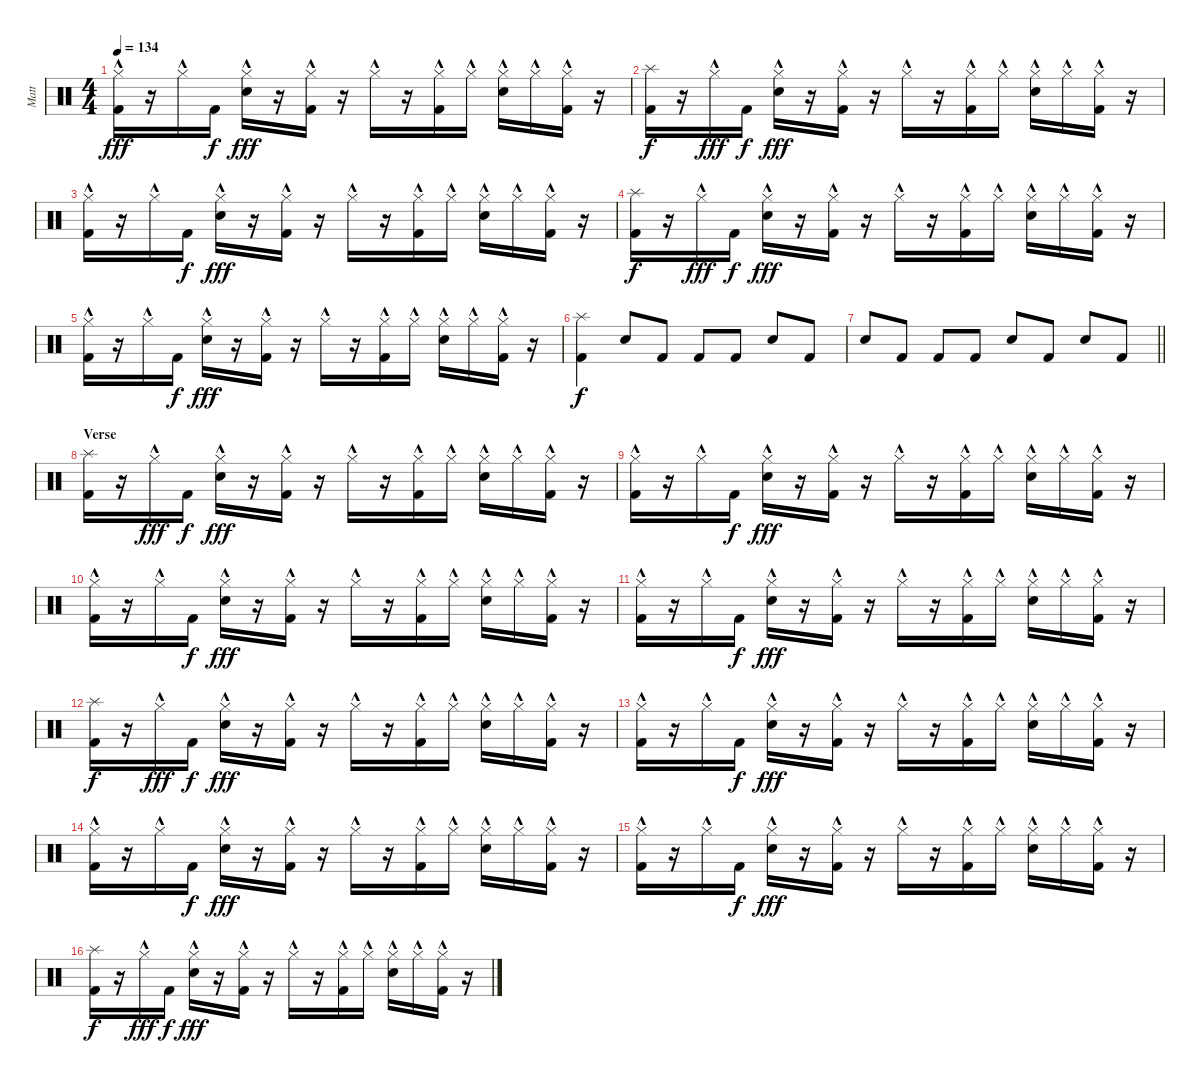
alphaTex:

\track ("Matt" "Matt") {instrument percussion}
\staff {score}
\articulation defaults
\ts (4 4)
\tempo 134
\clef neutral
\ks c
("Hi-Hat (closed)"{hac} "Kick (hit) 2").16{dy fff} r.16 "Hi-Hat (closed)"{hac}.16 "Kick (hit) 2".16{dy f} ("Hi-Hat (closed)"{hac} "Snare (hit) 2").16{dy fff} r.16 ("Hi-Hat (closed)"{hac} "Kick (hit) 2").16 r.16 "Hi-Hat (closed)"{hac}.16 r.16 ("Hi-Hat (closed)"{hac} "Kick (hit) 2").16 "Hi-Hat (closed)"{hac}.16 ("Hi-Hat (closed)"{hac} "Snare (hit) 2").16 "Hi-Hat (closed)"{hac}.16 ("Hi-Hat (closed)"{hac} "Kick (hit) 2").16 r.16 |
("Splash (hit)" "Kick (hit) 2").16{dy f} r.16 "Hi-Hat (closed)"{hac}.16{dy fff} "Kick (hit) 2".16{dy f} ("Hi-Hat (closed)"{hac} "Snare (hit) 2").16{dy fff} r.16 ("Hi-Hat (closed)"{hac} "Kick (hit) 2").16 r.16 "Hi-Hat (closed)"{hac}.16 r.16 ("Hi-Hat (closed)"{hac} "Kick (hit) 2").16 "Hi-Hat (closed)"{hac}.16 ("Hi-Hat (closed)"{hac} "Snare (hit) 2").16 "Hi-Hat (closed)"{hac}.16 ("Hi-Hat (closed)"{hac} "Kick (hit) 2").16 r.16 |
("Hi-Hat (closed)"{hac} "Kick (hit) 2").16 r.16 "Hi-Hat (closed)"{hac}.16 "Kick (hit) 2".16{dy f} ("Hi-Hat (closed)"{hac} "Snare (hit) 2").16{dy fff} r.16 ("Hi-Hat (closed)"{hac} "Kick (hit) 2").16 r.16 "Hi-Hat (closed)"{hac}.16 r.16 ("Hi-Hat (closed)"{hac} "Kick (hit) 2").16 "Hi-Hat (closed)"{hac}.16 ("Hi-Hat (closed)"{hac} "Snare (hit) 2").16 "Hi-Hat (closed)"{hac}.16 ("Hi-Hat (closed)"{hac} "Kick (hit) 2").16 r.16 |
("Splash (hit)" "Kick (hit) 2").16{dy f} r.16 "Hi-Hat (closed)"{hac}.16{dy fff} "Kick (hit) 2".16{dy f} ("Hi-Hat (closed)"{hac} "Snare (hit) 2").16{dy fff} r.16 ("Hi-Hat (closed)"{hac} "Kick (hit) 2").16 r.16 "Hi-Hat (closed)"{hac}.16 r.16 ("Hi-Hat (closed)"{hac} "Kick (hit) 2").16 "Hi-Hat (closed)"{hac}.16 ("Hi-Hat (closed)"{hac} "Snare (hit) 2").16 "Hi-Hat (closed)"{hac}.16 ("Hi-Hat (closed)"{hac} "Kick (hit) 2").16 r.16 |
("Hi-Hat (closed)"{hac} "Kick (hit) 2").16 r.16 "Hi-Hat (closed)"{hac}.16 "Kick (hit) 2".16{dy f} ("Hi-Hat (closed)"{hac} "Snare (hit) 2").16{dy fff} r.16 ("Hi-Hat (closed)"{hac} "Kick (hit) 2").16 r.16 "Hi-Hat (closed)"{hac}.16 r.16 ("Hi-Hat (closed)"{hac} "Kick (hit) 2").16 "Hi-Hat (closed)"{hac}.16 ("Hi-Hat (closed)"{hac} "Snare (hit) 2").16 "Hi-Hat (closed)"{hac}.16 ("Hi-Hat (closed)"{hac} "Kick (hit) 2").16 r.16 |
("Splash (hit)" "Kick (hit) 2").4{dy f} "Snare (hit) 2".8 "Kick (hit) 2".8 "Kick (hit) 2".8 "Kick (hit) 2".8 "Snare (hit) 2".8 "Kick (hit) 2".8 |
\barLineRight lightlight "Snare (hit) 2".8 "Kick (hit) 2".8 "Kick (hit) 2".8 "Kick (hit) 2".8 "Snare (hit) 2".8 "Kick (hit) 2".8 "Snare (hit) 2".8 "Kick (hit) 2".8
|
\section ("" "Verse")
("Splash (hit)" "Kick (hit) 2").16 r.16 "Hi-Hat (closed)"{hac}.16{dy fff} "Kick (hit) 2".16{dy f} ("Hi-Hat (closed)"{hac} "Snare (hit) 2").16{dy fff} r.16 ("Hi-Hat (closed)"{hac} "Kick (hit) 2").16 r.16 "Hi-Hat (closed)"{hac}.16 r.16 ("Hi-Hat (closed)"{hac} "Kick (hit) 2").16 "Hi-Hat (closed)"{hac}.16 ("Hi-Hat (closed)"{hac} "Snare (hit) 2").16 "Hi-Hat (closed)"{hac}.16 ("Hi-Hat (closed)"{hac} "Kick (hit) 2").16 r.16 |
("Hi-Hat (closed)"{hac} "Kick (hit) 2").16 r.16 "Hi-Hat (closed)"{hac}.16 "Kick (hit) 2".16{dy f} ("Hi-Hat (closed)"{hac} "Snare (hit) 2").16{dy fff} r.16 ("Hi-Hat (closed)"{hac} "Kick (hit) 2").16 r.16 "Hi-Hat (closed)"{hac}.16 r.16 ("Hi-Hat (closed)"{hac} "Kick (hit) 2").16 "Hi-Hat (closed)"{hac}.16 ("Hi-Hat (closed)"{hac} "Snare (hit) 2").16 "Hi-Hat (closed)"{hac}.16 ("Hi-Hat (closed)"{hac} "Kick (hit) 2").16 r.16 |
("Hi-Hat (closed)"{hac} "Kick (hit) 2").16 r.16 "Hi-Hat (closed)"{hac}.16 "Kick (hit) 2".16{dy f} ("Hi-Hat (closed)"{hac} "Snare (hit) 2").16{dy fff} r.16 ("Hi-Hat (closed)"{hac} "Kick (hit) 2").16 r.16 "Hi-Hat (closed)"{hac}.16 r.16 ("Hi-Hat (closed)"{hac} "Kick (hit) 2").16 "Hi-Hat (closed)"{hac}.16 ("Hi-Hat (closed)"{hac} "Snare (hit) 2").16 "Hi-Hat (closed)"{hac}.16 ("Hi-Hat (closed)"{hac} "Kick (hit) 2").16 r.16 |
("Hi-Hat (closed)"{hac} "Kick (hit) 2").16 r.16 "Hi-Hat (closed)"{hac}.16 "Kick (hit) 2".16{dy f} ("Hi-Hat (closed)"{hac} "Snare (hit) 2").16{dy fff} r.16 ("Hi-Hat (closed)"{hac} "Kick (hit) 2").16 r.16 "Hi-Hat (closed)"{hac}.16 r.16 ("Hi-Hat (closed)"{hac} "Kick (hit) 2").16 "Hi-Hat (closed)"{hac}.16 ("Hi-Hat (closed)"{hac} "Snare (hit) 2").16 "Hi-Hat (closed)"{hac}.16 ("Hi-Hat (closed)"{hac} "Kick (hit) 2").16 r.16 |
("Splash (hit)" "Kick (hit) 2").16{dy f} r.16 "Hi-Hat (closed)"{hac}.16{dy fff} "Kick (hit) 2".16{dy f} ("Hi-Hat (closed)"{hac} "Snare (hit) 2").16{dy fff} r.16 ("Hi-Hat (closed)"{hac} "Kick (hit) 2").16 r.16 "Hi-Hat (closed)"{hac}.16 r.16 ("Hi-Hat (closed)"{hac} "Kick (hit) 2").16 "Hi-Hat (closed)"{hac}.16 ("Hi-Hat (closed)"{hac} "Snare (hit) 2").16 "Hi-Hat (closed)"{hac}.16 ("Hi-Hat (closed)"{hac} "Kick (hit) 2").16 r.16 |
("Hi-Hat (closed)"{hac} "Kick (hit) 2").16 r.16 "Hi-Hat (closed)"{hac}.16 "Kick (hit) 2".16{dy f} ("Hi-Hat (closed)"{hac} "Snare (hit) 2").16{dy fff} r.16 ("Hi-Hat (closed)"{hac} "Kick (hit) 2").16 r.16 "Hi-Hat (closed)"{hac}.16 r.16 ("Hi-Hat (closed)"{hac} "Kick (hit) 2").16 "Hi-Hat (closed)"{hac}.16 ("Hi-Hat (closed)"{hac} "Snare (hit) 2").16 "Hi-Hat (closed)"{hac}.16 ("Hi-Hat (closed)"{hac} "Kick (hit) 2").16 r.16 |
("Hi-Hat (closed)"{hac} "Kick (hit) 2").16 r.16 "Hi-Hat (closed)"{hac}.16 "Kick (hit) 2".16{dy f} ("Hi-Hat (closed)"{hac} "Snare (hit) 2").16{dy fff} r.16 ("Hi-Hat (closed)"{hac} "Kick (hit) 2").16 r.16 "Hi-Hat (closed)"{hac}.16 r.16 ("Hi-Hat (closed)"{hac} "Kick (hit) 2").16 "Hi-Hat (closed)"{hac}.16 ("Hi-Hat (closed)"{hac} "Snare (hit) 2").16 "Hi-Hat (closed)"{hac}.16 ("Hi-Hat (closed)"{hac} "Kick (hit) 2").16 r.16 |
("Hi-Hat (closed)"{hac} "Kick (hit) 2").16 r.16 "Hi-Hat (closed)"{hac}.16 "Kick (hit) 2".16{dy f} ("Hi-Hat (closed)"{hac} "Snare (hit) 2").16{dy fff} r.16 ("Hi-Hat (closed)"{hac} "Kick (hit) 2").16 r.16 "Hi-Hat (closed)"{hac}.16 r.16 ("Hi-Hat (closed)"{hac} "Kick (hit) 2").16 "Hi-Hat (closed)"{hac}.16 ("Hi-Hat (closed)"{hac} "Snare (hit) 2").16 "Hi-Hat (closed)"{hac}.16 ("Hi-Hat (closed)"{hac} "Kick (hit) 2").16 r.16 |
("Splash (hit)" "Kick (hit) 2").16{dy f} r.16 "Hi-Hat (closed)"{hac}.16{dy fff} "Kick (hit) 2".16{dy f} ("Hi-Hat (closed)"{hac} "Snare (hit) 2").16{dy fff} r.16 ("Hi-Hat (closed)"{hac} "Kick (hit) 2").16 r.16 "Hi-Hat (closed)"{hac}.16 r.16 ("Hi-Hat (closed)"{hac} "Kick (hit) 2").16 "Hi-Hat (closed)"{hac}.16 ("Hi-Hat (closed)"{hac} "Snare (hit) 2").16 "Hi-Hat (closed)"{hac}.16 ("Hi-Hat (closed)"{hac} "Kick (hit) 2").16 r.16
